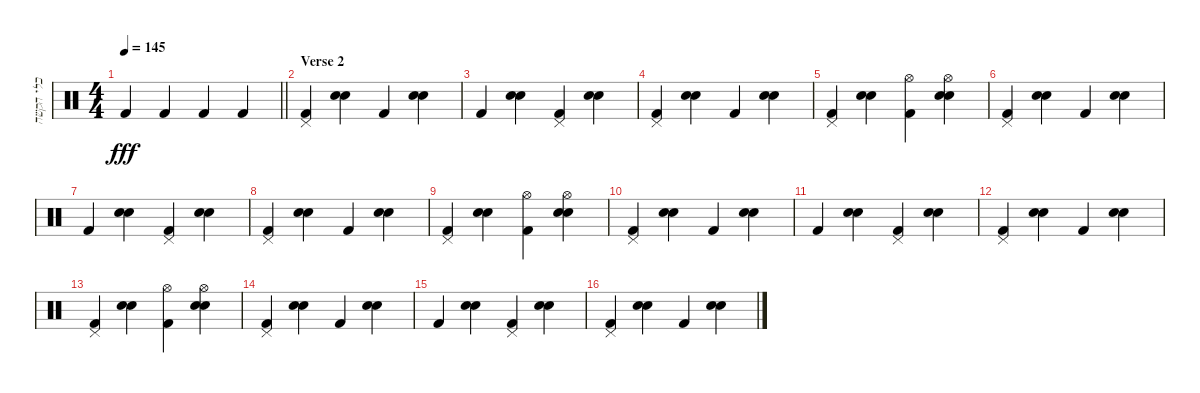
\track ("כלי הקשה" "כלי הקשה") {instrument percussion bank 127}
\staff {score}
\articulation defaults
\ts (4 4)
\tempo 145
\clef neutral
\barLineRight lightlight
\ks c "Kick (hit) 2".4{dy fff} "Kick (hit) 2".4 "Kick (hit) 2".4 "Kick (hit) 2".4
|
\section ("" "Verse 2")
("Pedal Hi-Hat (hit)" "Kick (hit) 2").4 ("Snare (hit) 2" "Snare (hit) 2").4 "Kick (hit) 2".4 ("Snare (hit) 2" "Snare (hit) 2").4 |
"Kick (hit) 2".4 ("Snare (hit) 2" "Snare (hit) 2").4 ("Pedal Hi-Hat (hit)" "Kick (hit) 2").4 ("Snare (hit) 2" "Snare (hit) 2").4 |
("Pedal Hi-Hat (hit)" "Kick (hit) 2").4 ("Snare (hit) 2" "Snare (hit) 2").4 "Kick (hit) 2".4 ("Snare (hit) 2" "Snare (hit) 2").4 |
("Pedal Hi-Hat (hit)" "Kick (hit) 2").4 ("Snare (hit) 2" "Snare (hit) 2").4 ("Hi-Hat (open)" "Kick (hit) 2").4 ("Hi-Hat (open)" "Snare (hit) 2" "Snare (hit) 2").4 |
("Pedal Hi-Hat (hit)" "Kick (hit) 2").4 ("Snare (hit) 2" "Snare (hit) 2").4 "Kick (hit) 2".4 ("Snare (hit) 2" "Snare (hit) 2").4 |
"Kick (hit) 2".4 ("Snare (hit) 2" "Snare (hit) 2").4 ("Pedal Hi-Hat (hit)" "Kick (hit) 2").4 ("Snare (hit) 2" "Snare (hit) 2").4 |
("Pedal Hi-Hat (hit)" "Kick (hit) 2").4 ("Snare (hit) 2" "Snare (hit) 2").4 "Kick (hit) 2".4 ("Snare (hit) 2" "Snare (hit) 2").4 |
("Pedal Hi-Hat (hit)" "Kick (hit) 2").4 ("Snare (hit) 2" "Snare (hit) 2").4 ("Hi-Hat (open)" "Kick (hit) 2").4 ("Hi-Hat (open)" "Snare (hit) 2" "Snare (hit) 2").4 |
("Pedal Hi-Hat (hit)" "Kick (hit) 2").4 ("Snare (hit) 2" "Snare (hit) 2").4 "Kick (hit) 2".4 ("Snare (hit) 2" "Snare (hit) 2").4 |
"Kick (hit) 2".4 ("Snare (hit) 2" "Snare (hit) 2").4 ("Pedal Hi-Hat (hit)" "Kick (hit) 2").4 ("Snare (hit) 2" "Snare (hit) 2").4 |
("Pedal Hi-Hat (hit)" "Kick (hit) 2").4 ("Snare (hit) 2" "Snare (hit) 2").4 "Kick (hit) 2".4 ("Snare (hit) 2" "Snare (hit) 2").4 |
("Pedal Hi-Hat (hit)" "Kick (hit) 2").4 ("Snare (hit) 2" "Snare (hit) 2").4 ("Hi-Hat (open)" "Kick (hit) 2").4 ("Hi-Hat (open)" "Snare (hit) 2" "Snare (hit) 2").4 |
("Pedal Hi-Hat (hit)" "Kick (hit) 2").4 ("Snare (hit) 2" "Snare (hit) 2").4 "Kick (hit) 2".4 ("Snare (hit) 2" "Snare (hit) 2").4 |
"Kick (hit) 2".4 ("Snare (hit) 2" "Snare (hit) 2").4 ("Pedal Hi-Hat (hit)" "Kick (hit) 2").4 ("Snare (hit) 2" "Snare (hit) 2").4 |
("Pedal Hi-Hat (hit)" "Kick (hit) 2").4 ("Snare (hit) 2" "Snare (hit) 2").4 "Kick (hit) 2".4 ("Snare (hit) 2" "Snare (hit) 2").4
